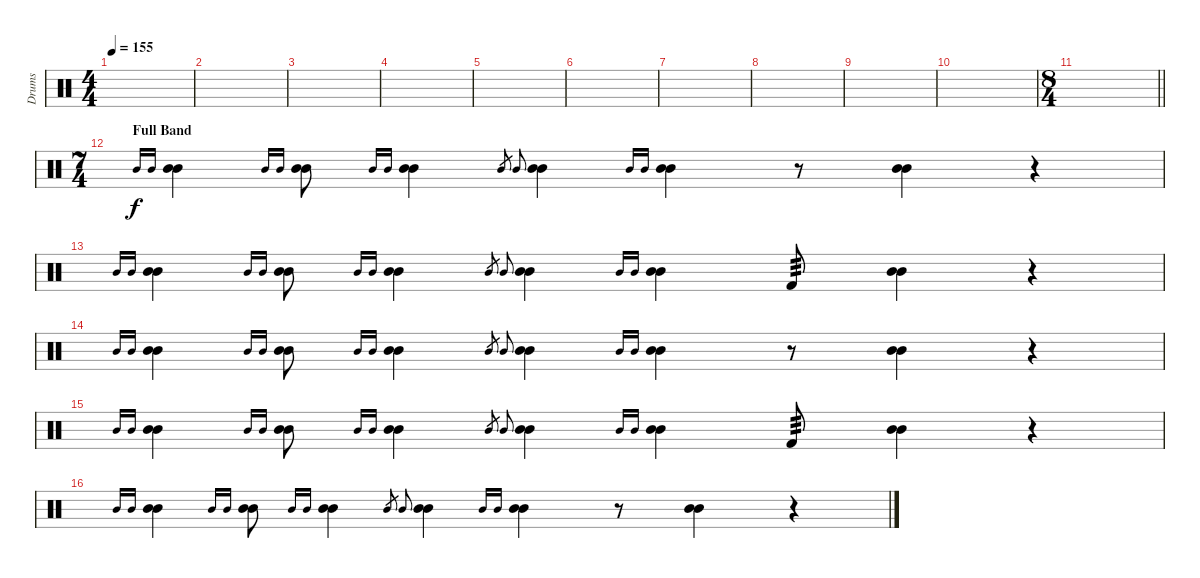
\track ("Drums" "Drums") {instrument percussion}
\staff {score}
\articulation defaults
\ts (4 4)
\tempo 155
\clef neutral
\ks c
|
|
|
|
|
|
|
|
|
|
\ts (8 4)
\barLineRight lightlight
|
\ts (7 4)
\section ("" "Full Band")
"Mid Tom (hit)".16{gr onbeat} "Mid Tom (hit)".16{gr onbeat} ("Mid Tom (hit)" "Mid Tom (hit)").4 "Mid Tom (hit)".16{gr onbeat} "Mid Tom (hit)".16{gr onbeat} ("Mid Tom (hit)" "Mid Tom (hit)").8 "Mid Tom (hit)".16{gr onbeat} "Mid Tom (hit)".16{gr onbeat} ("Mid Tom (hit)" "Mid Tom (hit)").4 "Mid Tom (hit)".16{gr} "Mid Tom (hit)".16{gr onbeat} ("Mid Tom (hit)" "Mid Tom (hit)").4 "Mid Tom (hit)".16{gr onbeat} "Mid Tom (hit)".16{gr onbeat} ("Mid Tom (hit)" "Mid Tom (hit)").4 r.8 ("Mid Tom (hit)" "Mid Tom (hit)").4 r.4 |
"Mid Tom (hit)".16{gr onbeat} "Mid Tom (hit)".16{gr onbeat} ("Mid Tom (hit)" "Mid Tom (hit)").4 "Mid Tom (hit)".16{gr onbeat} "Mid Tom (hit)".16{gr onbeat} ("Mid Tom (hit)" "Mid Tom (hit)").8 "Mid Tom (hit)".16{gr onbeat} "Mid Tom (hit)".16{gr onbeat} ("Mid Tom (hit)" "Mid Tom (hit)").4 "Mid Tom (hit)".16{gr} "Mid Tom (hit)".16{gr onbeat} ("Mid Tom (hit)" "Mid Tom (hit)").4 "Mid Tom (hit)".16{gr onbeat} "Mid Tom (hit)".16{gr onbeat} ("Mid Tom (hit)" "Mid Tom (hit)").4 "Kick (hit) 2".8{tp 3} ("Mid Tom (hit)" "Mid Tom (hit)").4 r.4 |
"Mid Tom (hit)".16{gr onbeat} "Mid Tom (hit)".16{gr onbeat} ("Mid Tom (hit)" "Mid Tom (hit)").4 "Mid Tom (hit)".16{gr onbeat} "Mid Tom (hit)".16{gr onbeat} ("Mid Tom (hit)" "Mid Tom (hit)").8 "Mid Tom (hit)".16{gr onbeat} "Mid Tom (hit)".16{gr onbeat} ("Mid Tom (hit)" "Mid Tom (hit)").4 "Mid Tom (hit)".16{gr} "Mid Tom (hit)".16{gr onbeat} ("Mid Tom (hit)" "Mid Tom (hit)").4 "Mid Tom (hit)".16{gr onbeat} "Mid Tom (hit)".16{gr onbeat} ("Mid Tom (hit)" "Mid Tom (hit)").4 r.8 ("Mid Tom (hit)" "Mid Tom (hit)").4 r.4 |
"Mid Tom (hit)".16{gr onbeat} "Mid Tom (hit)".16{gr onbeat} ("Mid Tom (hit)" "Mid Tom (hit)").4 "Mid Tom (hit)".16{gr onbeat} "Mid Tom (hit)".16{gr onbeat} ("Mid Tom (hit)" "Mid Tom (hit)").8 "Mid Tom (hit)".16{gr onbeat} "Mid Tom (hit)".16{gr onbeat} ("Mid Tom (hit)" "Mid Tom (hit)").4 "Mid Tom (hit)".16{gr} "Mid Tom (hit)".16{gr onbeat} ("Mid Tom (hit)" "Mid Tom (hit)").4 "Mid Tom (hit)".16{gr onbeat} "Mid Tom (hit)".16{gr onbeat} ("Mid Tom (hit)" "Mid Tom (hit)").4 "Kick (hit) 2".8{tp 3} ("Mid Tom (hit)" "Mid Tom (hit)").4 r.4 |
"Mid Tom (hit)".16{gr onbeat} "Mid Tom (hit)".16{gr onbeat} ("Mid Tom (hit)" "Mid Tom (hit)").4 "Mid Tom (hit)".16{gr onbeat} "Mid Tom (hit)".16{gr onbeat} ("Mid Tom (hit)" "Mid Tom (hit)").8 "Mid Tom (hit)".16{gr onbeat} "Mid Tom (hit)".16{gr onbeat} ("Mid Tom (hit)" "Mid Tom (hit)").4 "Mid Tom (hit)".16{gr} "Mid Tom (hit)".16{gr onbeat} ("Mid Tom (hit)" "Mid Tom (hit)").4 "Mid Tom (hit)".16{gr onbeat} "Mid Tom (hit)".16{gr onbeat} ("Mid Tom (hit)" "Mid Tom (hit)").4 r.8 ("Mid Tom (hit)" "Mid Tom (hit)").4 r.4
